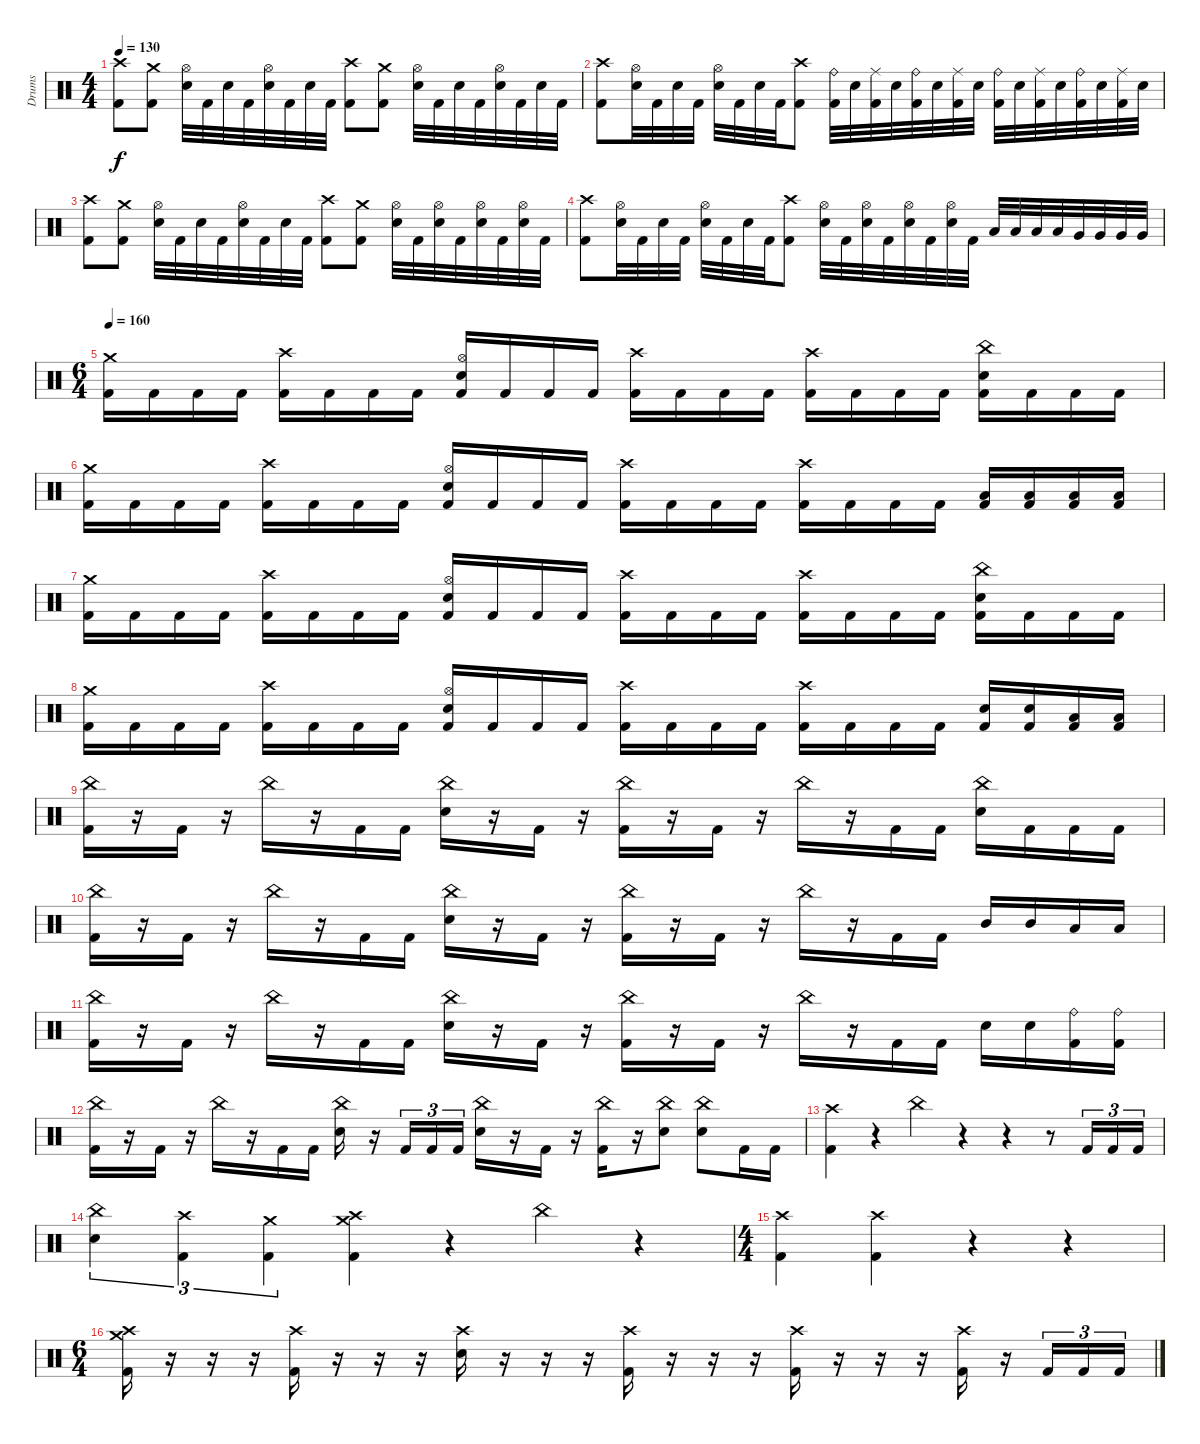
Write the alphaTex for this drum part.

\track ("Drums" "Drums") {instrument percussion}
\staff {score}
\articulation defaults
\ts (4 4)
\tempo 130
\clef neutral
\ks c
("Crash high (hit)" "Kick (hit) 2").8{dy f} ("Crash medium (hit)" "Kick (hit) 2").8 ("Hi-Hat (open)" "Electric Snare (hit)").32 "Kick (hit) 2".32 "Electric Snare (hit)".32 "Kick (hit) 2".32 ("Hi-Hat (open)" "Electric Snare (hit)").32 "Kick (hit) 2".32 "Electric Snare (hit)".32 "Kick (hit) 2".32 ("Crash high (hit)" "Kick (hit) 2").8 ("Crash medium (hit)" "Kick (hit) 2").8 ("Hi-Hat (open)" "Electric Snare (hit)").32 "Kick (hit) 2".32 "Electric Snare (hit)".32 "Kick (hit) 2".32 ("Hi-Hat (open)" "Electric Snare (hit)").32 "Kick (hit) 2".32 "Electric Snare (hit)".32 "Kick (hit) 2".32 |
("Crash high (hit)" "Kick (hit) 2").8 ("Hi-Hat (open)" "Electric Snare (hit)").32 "Kick (hit) 2".32 "Electric Snare (hit)".32 "Kick (hit) 2".32 ("Hi-Hat (open)" "Electric Snare (hit)").32 "Kick (hit) 2".32 "Electric Snare (hit)".32 "Kick (hit) 2".32 ("Crash high (hit)" "Kick (hit) 2").8 ("Ride (bell)" "Kick (hit) 2").32 "Electric Snare (hit)".32 ("Ride (middle)" "Kick (hit) 2").32 "Electric Snare (hit)".32 ("Ride (bell)" "Kick (hit) 2").32 "Electric Snare (hit)".32 ("Ride (middle)" "Kick (hit) 2").32 "Electric Snare (hit)".32 ("Ride (bell)" "Kick (hit) 2").32 "Electric Snare (hit)".32 ("Ride (middle)" "Kick (hit) 2").32 "Electric Snare (hit)".32 ("Ride (bell)" "Kick (hit) 2").32 "Electric Snare (hit)".32 ("Ride (middle)" "Kick (hit) 2").32 "Electric Snare (hit)".32 |
("Crash high (hit)" "Kick (hit) 2").8 ("Crash medium (hit)" "Kick (hit) 2").8 ("Hi-Hat (open)" "Electric Snare (hit)").32 "Kick (hit) 2".32 "Electric Snare (hit)".32 "Kick (hit) 2".32 ("Hi-Hat (open)" "Electric Snare (hit)").32 "Kick (hit) 2".32 "Electric Snare (hit)".32 "Kick (hit) 2".32 ("Crash high (hit)" "Kick (hit) 2").8 ("Crash medium (hit)" "Kick (hit) 2").8 ("Hi-Hat (open)" "Electric Snare (hit)").32 "Kick (hit) 2".32 ("Hi-Hat (open)" "Electric Snare (hit)").32 "Kick (hit) 2".32 ("Hi-Hat (open)" "Electric Snare (hit)").32 "Kick (hit) 2".32 ("Hi-Hat (open)" "Electric Snare (hit)").32 "Kick (hit) 2".32 |
("Crash high (hit)" "Kick (hit) 2").8 ("Hi-Hat (open)" "Electric Snare (hit)").32 "Kick (hit) 2".32 "Electric Snare (hit)".32 "Kick (hit) 2".32 ("Hi-Hat (open)" "Electric Snare (hit)").32 "Kick (hit) 2".32 "Electric Snare (hit)".32 "Kick (hit) 2".32 ("Crash high (hit)" "Kick (hit) 2").8 ("Hi-Hat (open)" "Electric Snare (hit)").32 "Kick (hit) 2".32 ("Hi-Hat (open)" "Electric Snare (hit)").32 "Kick (hit) 2".32 ("Hi-Hat (open)" "Electric Snare (hit)").32 "Kick (hit) 2".32 ("Hi-Hat (open)" "Electric Snare (hit)").32 "Kick (hit) 2".32 "Low Tom (hit)".32 "Low Tom (hit)".32 "Low Tom (hit)".32 "Low Tom (hit)".32 "Very Low Tom (hit)".32 "Very Low Tom (hit)".32 "Very Low Tom (hit)".32 "Very Low Tom (hit)".32 |
\ts (6 4)
\tempo 160
("Crash medium (hit)" "Kick (hit) 2").16 "Kick (hit) 2".16 "Kick (hit) 2".16 "Kick (hit) 2".16 ("Crash high (hit)" "Kick (hit) 2").16 "Kick (hit) 2".16 "Kick (hit) 2".16 "Kick (hit) 2".16 ("Hi-Hat (open)" "Electric Snare (hit)" "Kick (hit) 2").16 "Kick (hit) 2".16 "Kick (hit) 2".16 "Kick (hit) 2".16 ("Crash high (hit)" "Kick (hit) 2").16 "Kick (hit) 2".16 "Kick (hit) 2".16 "Kick (hit) 2".16 ("Crash high (hit)" "Kick (hit) 2").16 "Kick (hit) 2".16 "Kick (hit) 2".16 "Kick (hit) 2".16 ("China (hit)" "Electric Snare (hit)" "Kick (hit) 2").16 "Kick (hit) 2".16 "Kick (hit) 2".16 "Kick (hit) 2".16 |
("Crash medium (hit)" "Kick (hit) 2").16 "Kick (hit) 2".16 "Kick (hit) 2".16 "Kick (hit) 2".16 ("Crash high (hit)" "Kick (hit) 2").16 "Kick (hit) 2".16 "Kick (hit) 2".16 "Kick (hit) 2".16 ("Hi-Hat (open)" "Electric Snare (hit)" "Kick (hit) 2").16 "Kick (hit) 2".16 "Kick (hit) 2".16 "Kick (hit) 2".16 ("Crash high (hit)" "Kick (hit) 2").16 "Kick (hit) 2".16 "Kick (hit) 2".16 "Kick (hit) 2".16 ("Crash high (hit)" "Kick (hit) 2").16 "Kick (hit) 2".16 "Kick (hit) 2".16 "Kick (hit) 2".16 ("Low Tom (hit)" "Kick (hit) 2").16 ("Low Tom (hit)" "Kick (hit) 2").16 ("Low Tom (hit)" "Kick (hit) 2").16 ("Low Tom (hit)" "Kick (hit) 2").16 |
("Crash medium (hit)" "Kick (hit) 2").16 "Kick (hit) 2".16 "Kick (hit) 2".16 "Kick (hit) 2".16 ("Crash high (hit)" "Kick (hit) 2").16 "Kick (hit) 2".16 "Kick (hit) 2".16 "Kick (hit) 2".16 ("Hi-Hat (open)" "Electric Snare (hit)" "Kick (hit) 2").16 "Kick (hit) 2".16 "Kick (hit) 2".16 "Kick (hit) 2".16 ("Crash high (hit)" "Kick (hit) 2").16 "Kick (hit) 2".16 "Kick (hit) 2".16 "Kick (hit) 2".16 ("Crash high (hit)" "Kick (hit) 2").16 "Kick (hit) 2".16 "Kick (hit) 2".16 "Kick (hit) 2".16 ("China (hit)" "Electric Snare (hit)" "Kick (hit) 2").16 "Kick (hit) 2".16 "Kick (hit) 2".16 "Kick (hit) 2".16 |
("Crash medium (hit)" "Kick (hit) 2").16 "Kick (hit) 2".16 "Kick (hit) 2".16 "Kick (hit) 2".16 ("Crash high (hit)" "Kick (hit) 2").16 "Kick (hit) 2".16 "Kick (hit) 2".16 "Kick (hit) 2".16 ("Hi-Hat (open)" "Electric Snare (hit)" "Kick (hit) 2").16 "Kick (hit) 2".16 "Kick (hit) 2".16 "Kick (hit) 2".16 ("Crash high (hit)" "Kick (hit) 2").16 "Kick (hit) 2".16 "Kick (hit) 2".16 "Kick (hit) 2".16 ("Crash high (hit)" "Kick (hit) 2").16 "Kick (hit) 2".16 "Kick (hit) 2".16 "Kick (hit) 2".16 ("Electric Snare (hit)" "Kick (hit) 2").16 ("Electric Snare (hit)" "Kick (hit) 2").16 ("Low Tom (hit)" "Kick (hit) 2").16 ("Low Tom (hit)" "Kick (hit) 2").16 |
("China (hit)" "Kick (hit) 2").16 r.16 "Kick (hit) 2".16 r.16 "China (hit)".16 r.16 "Kick (hit) 2".16 "Kick (hit) 2".16 ("China (hit)" "Electric Snare (hit)").16 r.16 "Kick (hit) 2".16 r.16 ("China (hit)" "Kick (hit) 2").16 r.16 "Kick (hit) 2".16 r.16 "China (hit)".16 r.16 "Kick (hit) 2".16 "Kick (hit) 2".16 ("China (hit)" "Electric Snare (hit)").16 "Kick (hit) 2".16 "Kick (hit) 2".16 "Kick (hit) 2".16 |
("China (hit)" "Kick (hit) 2").16 r.16 "Kick (hit) 2".16 r.16 "China (hit)".16 r.16 "Kick (hit) 2".16 "Kick (hit) 2".16 ("China (hit)" "Electric Snare (hit)").16 r.16 "Kick (hit) 2".16 r.16 ("China (hit)" "Kick (hit) 2").16 r.16 "Kick (hit) 2".16 r.16 "China (hit)".16 r.16 "Kick (hit) 2".16 "Kick (hit) 2".16 "Mid Tom (hit)".16 "Mid Tom (hit)".16 "Low Tom (hit)".16 "Low Tom (hit)".16 |
("China (hit)" "Kick (hit) 2").16 r.16 "Kick (hit) 2".16 r.16 "China (hit)".16 r.16 "Kick (hit) 2".16 "Kick (hit) 2".16 ("China (hit)" "Electric Snare (hit)").16 r.16 "Kick (hit) 2".16 r.16 ("China (hit)" "Kick (hit) 2").16 r.16 "Kick (hit) 2".16 r.16 "China (hit)".16 r.16 "Kick (hit) 2".16 "Kick (hit) 2".16 "Electric Snare (hit)".16 "Electric Snare (hit)".16 ("Ride (bell)" "Kick (hit) 2").16 ("Ride (bell)" "Kick (hit) 2").16 |
("China (hit)" "Kick (hit) 2").16 r.16 "Kick (hit) 2".16 r.16 "China (hit)".16 r.16 "Kick (hit) 2".16 "Kick (hit) 2".16 ("China (hit)" "Electric Snare (hit)").16 r.16 "Kick (hit) 2".16{tu (3 2)} "Kick (hit) 2".16{tu (3 2)} "Kick (hit) 2".16{tu (3 2)} ("China (hit)" "Electric Snare (hit)").16 r.16 "Kick (hit) 2".16 r.16 ("China (hit)" "Kick (hit) 2").16 r.16 ("China (hit)" "Electric Snare (hit)").8 ("China (hit)" "Electric Snare (hit)").8 "Kick (hit) 2".16 "Kick (hit) 2".16 |
("Crash high (hit)" "Kick (hit) 2").4 r.4 "China (hit)".4 r.4 r.4 r.8 "Kick (hit) 2".16{tu (3 2)} "Kick (hit) 2".16{tu (3 2)} "Kick (hit) 2".16{tu (3 2)} |
("China (hit)" "Electric Snare (hit)").4{tu (3 2)} ("Crash high (hit)" "Kick (hit) 2").4{tu (3 2)} ("Crash medium (hit)" "Kick (hit) 2").4{tu (3 2)} ("Crash high (hit)" "Crash medium (hit)" "Kick (hit) 2").4 r.4 "China (hit)".4 r.4 |
\ts (4 4)
("Crash high (hit)" "Kick (hit) 2").4 ("Crash high (hit)" "Kick (hit) 2").4 r.4 r.4 |
\ts (6 4)
("Crash high (hit)" "Crash medium (hit)" "Kick (hit) 2").16 r.16 r.16 r.16 ("Crash high (hit)" "Kick (hit) 2").16 r.16 r.16 r.16 ("Crash high (hit)" "Electric Snare (hit)").16 r.16 r.16 r.16 ("Crash high (hit)" "Kick (hit) 2").16 r.16 r.16 r.16 ("Crash high (hit)" "Kick (hit) 2").16 r.16 r.16 r.16 ("Crash high (hit)" "Kick (hit) 2").16 r.16 "Kick (hit) 2".16{tu (3 2)} "Kick (hit) 2".16{tu (3 2)} "Kick (hit) 2".16{tu (3 2)}
